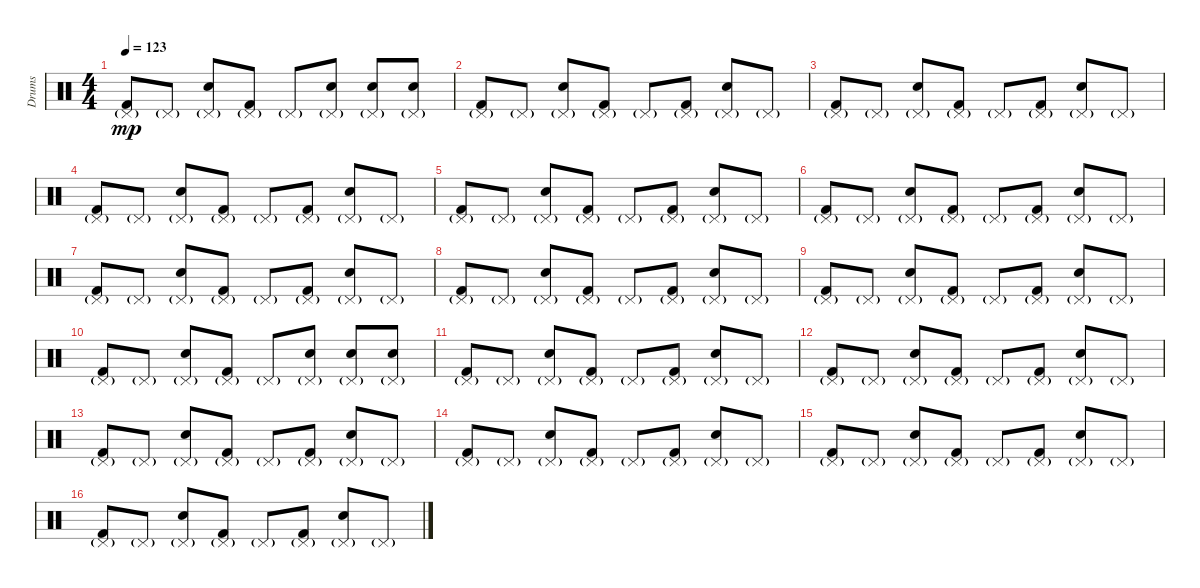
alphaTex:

\track ("Drums" "Drums") {instrument percussion}
\staff {score}
\articulation defaults
\ts (4 4)
\tempo 123
\clef neutral
\ks c
("Pedal Hi-Hat (hit)"{g} "Kick (hit) 2").8{dy mp} "Pedal Hi-Hat (hit)"{g}.8 ("Pedal Hi-Hat (hit)"{g} "Snare (hit) 2").8 ("Pedal Hi-Hat (hit)"{g} "Kick (hit) 2").8 "Pedal Hi-Hat (hit)"{g}.8 ("Pedal Hi-Hat (hit)"{g} "Snare (hit) 2").8 ("Pedal Hi-Hat (hit)"{g} "Snare (hit) 2").8 ("Pedal Hi-Hat (hit)"{g} "Snare (hit) 2").8 |
("Pedal Hi-Hat (hit)"{g} "Kick (hit) 2").8 "Pedal Hi-Hat (hit)"{g}.8 ("Pedal Hi-Hat (hit)"{g} "Snare (hit) 2").8 ("Pedal Hi-Hat (hit)"{g} "Kick (hit) 2").8 "Pedal Hi-Hat (hit)"{g}.8 ("Pedal Hi-Hat (hit)"{g} "Kick (hit) 2").8 ("Pedal Hi-Hat (hit)"{g} "Snare (hit) 2").8 "Pedal Hi-Hat (hit)"{g}.8 |
("Pedal Hi-Hat (hit)"{g} "Kick (hit) 2").8 "Pedal Hi-Hat (hit)"{g}.8 ("Pedal Hi-Hat (hit)"{g} "Snare (hit) 2").8 ("Pedal Hi-Hat (hit)"{g} "Kick (hit) 2").8 "Pedal Hi-Hat (hit)"{g}.8 ("Pedal Hi-Hat (hit)"{g} "Kick (hit) 2").8 ("Pedal Hi-Hat (hit)"{g} "Snare (hit) 2").8 "Pedal Hi-Hat (hit)"{g}.8 |
("Pedal Hi-Hat (hit)"{g} "Kick (hit) 2").8 "Pedal Hi-Hat (hit)"{g}.8 ("Pedal Hi-Hat (hit)"{g} "Snare (hit) 2").8 ("Pedal Hi-Hat (hit)"{g} "Kick (hit) 2").8 "Pedal Hi-Hat (hit)"{g}.8 ("Pedal Hi-Hat (hit)"{g} "Kick (hit) 2").8 ("Pedal Hi-Hat (hit)"{g} "Snare (hit) 2").8 "Pedal Hi-Hat (hit)"{g}.8 |
("Pedal Hi-Hat (hit)"{g} "Kick (hit) 2").8 "Pedal Hi-Hat (hit)"{g}.8 ("Pedal Hi-Hat (hit)"{g} "Snare (hit) 2").8 ("Pedal Hi-Hat (hit)"{g} "Kick (hit) 2").8 "Pedal Hi-Hat (hit)"{g}.8 ("Pedal Hi-Hat (hit)"{g} "Kick (hit) 2").8 ("Pedal Hi-Hat (hit)"{g} "Snare (hit) 2").8 "Pedal Hi-Hat (hit)"{g}.8 |
("Pedal Hi-Hat (hit)"{g} "Kick (hit) 2").8 "Pedal Hi-Hat (hit)"{g}.8 ("Pedal Hi-Hat (hit)"{g} "Snare (hit) 2").8 ("Pedal Hi-Hat (hit)"{g} "Kick (hit) 2").8 "Pedal Hi-Hat (hit)"{g}.8 ("Pedal Hi-Hat (hit)"{g} "Kick (hit) 2").8 ("Pedal Hi-Hat (hit)"{g} "Snare (hit) 2").8 "Pedal Hi-Hat (hit)"{g}.8 |
("Pedal Hi-Hat (hit)"{g} "Kick (hit) 2").8 "Pedal Hi-Hat (hit)"{g}.8 ("Pedal Hi-Hat (hit)"{g} "Snare (hit) 2").8 ("Pedal Hi-Hat (hit)"{g} "Kick (hit) 2").8 "Pedal Hi-Hat (hit)"{g}.8 ("Pedal Hi-Hat (hit)"{g} "Kick (hit) 2").8 ("Pedal Hi-Hat (hit)"{g} "Snare (hit) 2").8 "Pedal Hi-Hat (hit)"{g}.8 |
("Pedal Hi-Hat (hit)"{g} "Kick (hit) 2").8 "Pedal Hi-Hat (hit)"{g}.8 ("Pedal Hi-Hat (hit)"{g} "Snare (hit) 2").8 ("Pedal Hi-Hat (hit)"{g} "Kick (hit) 2").8 "Pedal Hi-Hat (hit)"{g}.8 ("Pedal Hi-Hat (hit)"{g} "Kick (hit) 2").8 ("Pedal Hi-Hat (hit)"{g} "Snare (hit) 2").8 "Pedal Hi-Hat (hit)"{g}.8 |
("Pedal Hi-Hat (hit)"{g} "Kick (hit) 2").8 "Pedal Hi-Hat (hit)"{g}.8 ("Pedal Hi-Hat (hit)"{g} "Snare (hit) 2").8 ("Pedal Hi-Hat (hit)"{g} "Kick (hit) 2").8 "Pedal Hi-Hat (hit)"{g}.8 ("Pedal Hi-Hat (hit)"{g} "Kick (hit) 2").8 ("Pedal Hi-Hat (hit)"{g} "Snare (hit) 2").8 "Pedal Hi-Hat (hit)"{g}.8 |
("Pedal Hi-Hat (hit)"{g} "Kick (hit) 2").8 "Pedal Hi-Hat (hit)"{g}.8 ("Pedal Hi-Hat (hit)"{g} "Snare (hit) 2").8 ("Pedal Hi-Hat (hit)"{g} "Kick (hit) 2").8 "Pedal Hi-Hat (hit)"{g}.8 ("Pedal Hi-Hat (hit)"{g} "Snare (hit) 2").8 ("Pedal Hi-Hat (hit)"{g} "Snare (hit) 2").8 ("Pedal Hi-Hat (hit)"{g} "Snare (hit) 2").8 |
("Pedal Hi-Hat (hit)"{g} "Kick (hit) 2").8 "Pedal Hi-Hat (hit)"{g}.8 ("Pedal Hi-Hat (hit)"{g} "Snare (hit) 2").8 ("Pedal Hi-Hat (hit)"{g} "Kick (hit) 2").8 "Pedal Hi-Hat (hit)"{g}.8 ("Pedal Hi-Hat (hit)"{g} "Kick (hit) 2").8 ("Pedal Hi-Hat (hit)"{g} "Snare (hit) 2").8 "Pedal Hi-Hat (hit)"{g}.8 |
("Pedal Hi-Hat (hit)"{g} "Kick (hit) 2").8 "Pedal Hi-Hat (hit)"{g}.8 ("Pedal Hi-Hat (hit)"{g} "Snare (hit) 2").8 ("Pedal Hi-Hat (hit)"{g} "Kick (hit) 2").8 "Pedal Hi-Hat (hit)"{g}.8 ("Pedal Hi-Hat (hit)"{g} "Kick (hit) 2").8 ("Pedal Hi-Hat (hit)"{g} "Snare (hit) 2").8 "Pedal Hi-Hat (hit)"{g}.8 |
("Pedal Hi-Hat (hit)"{g} "Kick (hit) 2").8 "Pedal Hi-Hat (hit)"{g}.8 ("Pedal Hi-Hat (hit)"{g} "Snare (hit) 2").8 ("Pedal Hi-Hat (hit)"{g} "Kick (hit) 2").8 "Pedal Hi-Hat (hit)"{g}.8 ("Pedal Hi-Hat (hit)"{g} "Kick (hit) 2").8 ("Pedal Hi-Hat (hit)"{g} "Snare (hit) 2").8 "Pedal Hi-Hat (hit)"{g}.8 |
("Pedal Hi-Hat (hit)"{g} "Kick (hit) 2").8 "Pedal Hi-Hat (hit)"{g}.8 ("Pedal Hi-Hat (hit)"{g} "Snare (hit) 2").8 ("Pedal Hi-Hat (hit)"{g} "Kick (hit) 2").8 "Pedal Hi-Hat (hit)"{g}.8 ("Pedal Hi-Hat (hit)"{g} "Kick (hit) 2").8 ("Pedal Hi-Hat (hit)"{g} "Snare (hit) 2").8 "Pedal Hi-Hat (hit)"{g}.8 |
("Pedal Hi-Hat (hit)"{g} "Kick (hit) 2").8 "Pedal Hi-Hat (hit)"{g}.8 ("Pedal Hi-Hat (hit)"{g} "Snare (hit) 2").8 ("Pedal Hi-Hat (hit)"{g} "Kick (hit) 2").8 "Pedal Hi-Hat (hit)"{g}.8 ("Pedal Hi-Hat (hit)"{g} "Kick (hit) 2").8 ("Pedal Hi-Hat (hit)"{g} "Snare (hit) 2").8 "Pedal Hi-Hat (hit)"{g}.8 |
("Pedal Hi-Hat (hit)"{g} "Kick (hit) 2").8 "Pedal Hi-Hat (hit)"{g}.8 ("Pedal Hi-Hat (hit)"{g} "Snare (hit) 2").8 ("Pedal Hi-Hat (hit)"{g} "Kick (hit) 2").8 "Pedal Hi-Hat (hit)"{g}.8 ("Pedal Hi-Hat (hit)"{g} "Kick (hit) 2").8 ("Pedal Hi-Hat (hit)"{g} "Snare (hit) 2").8 "Pedal Hi-Hat (hit)"{g}.8
